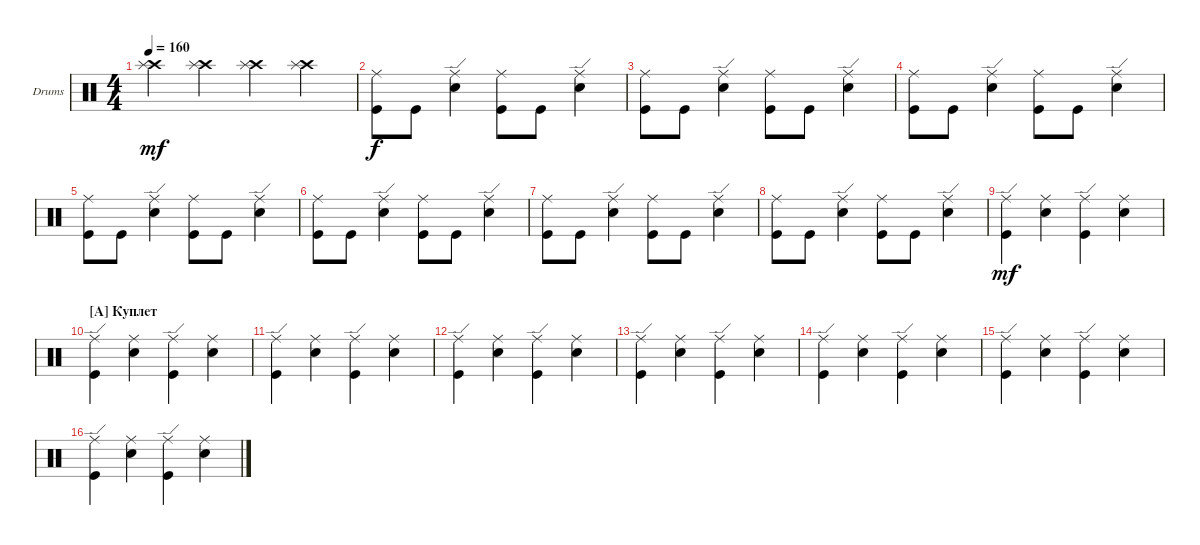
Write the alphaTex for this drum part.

\defaultSystemsLayout 4
\bracketExtendMode groupsimilarinstruments
\firstSystemTrackNameOrientation horizontal
\otherSystemsTrackNameOrientation horizontal
\track ("Drumkit" "Drums") {instrument percussion}
\staff {score}
\articulation defaults
\ts (4 4)
\tempo 160
\clef neutral
\ks c
("Crash high (hit)" "Splash (hit)").4{dy mf} ("Crash high (hit)" "Splash (hit)").4 ("Crash high (hit)" "Splash (hit)").4 ("Crash high (hit)" "Splash (hit)").4 |
("Kick (hit)" "Ride (middle)").8{dy f} "Kick (hit)".8 ("Snare (hit) 2" "Ride (edge)").4 ("Kick (hit)" "Ride (middle)").8 "Kick (hit)".8 ("Snare (hit) 2" "Ride (edge)").4 |
("Kick (hit)" "Ride (middle)").8 "Kick (hit)".8 ("Snare (hit) 2" "Ride (edge)").4 ("Kick (hit)" "Ride (middle)").8 "Kick (hit)".8 ("Snare (hit) 2" "Ride (edge)").4 |
("Kick (hit)" "Ride (middle)").8 "Kick (hit)".8 ("Snare (hit) 2" "Ride (edge)").4 ("Kick (hit)" "Ride (middle)").8 "Kick (hit)".8 ("Snare (hit) 2" "Ride (edge)").4 |
("Kick (hit)" "Ride (middle)").8 "Kick (hit)".8 ("Snare (hit) 2" "Ride (edge)").4 ("Kick (hit)" "Ride (middle)").8 "Kick (hit)".8 ("Snare (hit) 2" "Ride (edge)").4 |
("Kick (hit)" "Ride (middle)").8 "Kick (hit)".8 ("Snare (hit) 2" "Ride (edge)").4 ("Kick (hit)" "Ride (middle)").8 "Kick (hit)".8 ("Snare (hit) 2" "Ride (edge)").4 |
("Kick (hit)" "Ride (middle)").8 "Kick (hit)".8 ("Snare (hit) 2" "Ride (edge)").4 ("Kick (hit)" "Ride (middle)").8 "Kick (hit)".8 ("Snare (hit) 2" "Ride (edge)").4 |
("Kick (hit)" "Ride (middle)").8 "Kick (hit)".8 ("Snare (hit) 2" "Ride (edge)").4 ("Kick (hit)" "Ride (middle)").8 "Kick (hit)".8 ("Snare (hit) 2" "Ride (edge)").4 |
("Kick (hit)" "Ride (edge)").4{dy mf} ("Snare (hit) 2" "Ride (middle)").4 ("Kick (hit)" "Ride (edge)").4 ("Snare (hit) 2" "Ride (middle)").4 |
\section ("A" "Куплет")
("Kick (hit)" "Ride (edge)").4 ("Snare (hit) 2" "Ride (middle)").4 ("Kick (hit)" "Ride (edge)").4 ("Snare (hit) 2" "Ride (middle)").4 |
("Kick (hit)" "Ride (edge)").4 ("Snare (hit) 2" "Ride (middle)").4 ("Kick (hit)" "Ride (edge)").4 ("Snare (hit) 2" "Ride (middle)").4 |
("Kick (hit)" "Ride (edge)").4 ("Snare (hit) 2" "Ride (middle)").4 ("Kick (hit)" "Ride (edge)").4 ("Snare (hit) 2" "Ride (middle)").4 |
("Kick (hit)" "Ride (edge)").4 ("Snare (hit) 2" "Ride (middle)").4 ("Kick (hit)" "Ride (edge)").4 ("Snare (hit) 2" "Ride (middle)").4 |
("Kick (hit)" "Ride (edge)").4 ("Snare (hit) 2" "Ride (middle)").4 ("Kick (hit)" "Ride (edge)").4 ("Snare (hit) 2" "Ride (middle)").4 |
("Kick (hit)" "Ride (edge)").4 ("Snare (hit) 2" "Ride (middle)").4 ("Kick (hit)" "Ride (edge)").4 ("Snare (hit) 2" "Ride (middle)").4 |
("Kick (hit)" "Ride (edge)").4 ("Snare (hit) 2" "Ride (middle)").4 ("Kick (hit)" "Ride (edge)").4 ("Snare (hit) 2" "Ride (middle)").4
